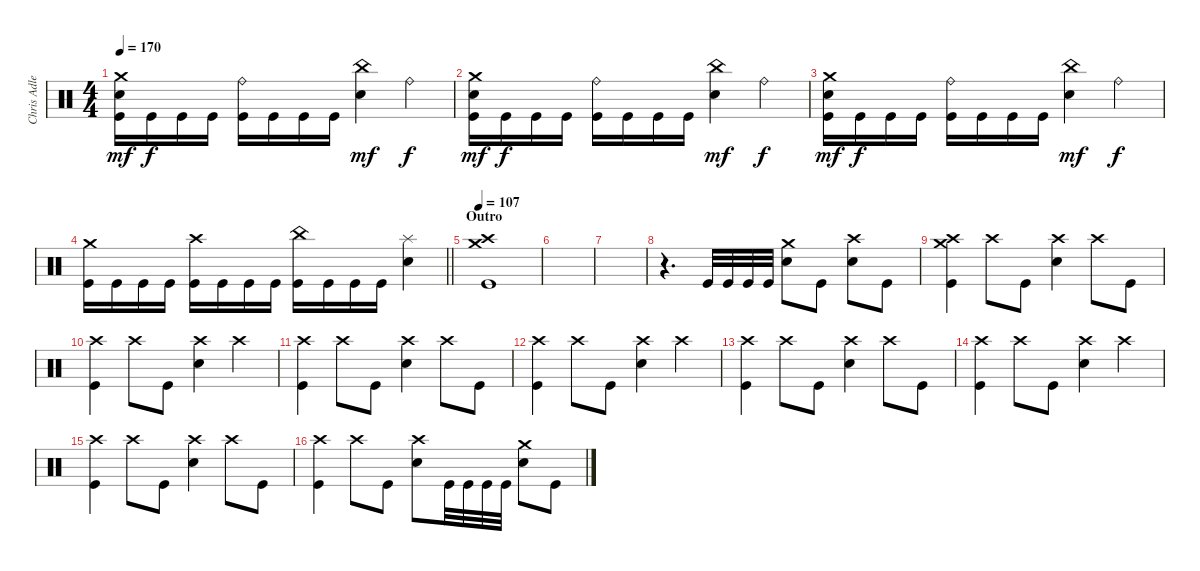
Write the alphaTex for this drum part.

\track ("Chris Adler" "Chris Adle") {instrument percussion}
\staff {score}
\articulation defaults
\ts (4 4)
\tempo 170
\clef neutral
\ks c
("Crash medium (hit)" "Snare (hit) 2" "Kick (hit)").16{dy mf} "Kick (hit)".16{dy f} "Kick (hit)".16 "Kick (hit)".16 ("Kick (hit)" "Ride (bell)").16 "Kick (hit)".16 "Kick (hit)".16 "Kick (hit)".16 ("China (hit)" "Snare (hit) 2").4{dy mf} "Ride (bell)".4{dy f} |
("Crash medium (hit)" "Snare (hit) 2" "Kick (hit)").16{dy mf} "Kick (hit)".16{dy f} "Kick (hit)".16 "Kick (hit)".16 ("Kick (hit)" "Ride (bell)").16 "Kick (hit)".16 "Kick (hit)".16 "Kick (hit)".16 ("China (hit)" "Snare (hit) 2").4{dy mf} "Ride (bell)".4{dy f} |
("Crash medium (hit)" "Snare (hit) 2" "Kick (hit)").16{dy mf} "Kick (hit)".16{dy f} "Kick (hit)".16 "Kick (hit)".16 ("Kick (hit)" "Ride (bell)").16 "Kick (hit)".16 "Kick (hit)".16 "Kick (hit)".16 ("China (hit)" "Snare (hit) 2").4{dy mf} "Ride (bell)".4{dy f} |
\barLineRight lightlight
("Kick (hit)" "Crash medium (hit)").16 "Kick (hit)".16 "Kick (hit)".16 "Kick (hit)".16 ("Kick (hit)" "Crash high (hit)").16 "Kick (hit)".16 "Kick (hit)".16 "Kick (hit)".16 ("Kick (hit)" "China (hit)").16 "Kick (hit)".16 "Kick (hit)".16 "Kick (hit)".16 ("Splash (hit)" "Snare (hit) 2").4 |
\section ("" "Outro")
\tempo 107
("Kick (hit)" "Crash medium (hit)" "Crash high (hit)").1 |
|
|
r.4{d} "Kick (hit)".32 "Kick (hit)".32 "Kick (hit)".32 "Kick (hit)".32 ("Crash medium (hit)" "Snare (hit) 2").8 "Kick (hit)".8 ("Crash high (hit)" "Snare (hit) 2").8 "Kick (hit)".8 |
("Kick (hit)" "Crash high (hit)" "Crash medium (hit)").4 "Crash high (hit)".8 "Kick (hit)".8 ("Crash high (hit)" "Snare (hit) 2").4 "Crash high (hit)".8 "Kick (hit)".8 |
("Kick (hit)" "Crash high (hit)").4 "Crash high (hit)".8 "Kick (hit)".8 ("Snare (hit) 2" "Crash high (hit)").4 "Crash high (hit)".4 |
("Kick (hit)" "Crash high (hit)").4 "Crash high (hit)".8 "Kick (hit)".8 ("Crash high (hit)" "Snare (hit) 2").4 "Crash high (hit)".8 "Kick (hit)".8 |
("Kick (hit)" "Crash high (hit)").4 "Crash high (hit)".8 "Kick (hit)".8 ("Snare (hit) 2" "Crash high (hit)").4 "Crash high (hit)".4 |
("Kick (hit)" "Crash high (hit)").4 "Crash high (hit)".8 "Kick (hit)".8 ("Crash high (hit)" "Snare (hit) 2").4 "Crash high (hit)".8 "Kick (hit)".8 |
("Kick (hit)" "Crash high (hit)").4 "Crash high (hit)".8 "Kick (hit)".8 ("Snare (hit) 2" "Crash high (hit)").4 "Crash high (hit)".4 |
("Kick (hit)" "Crash high (hit)").4 "Crash high (hit)".8 "Kick (hit)".8 ("Crash high (hit)" "Snare (hit) 2").4 "Crash high (hit)".8 "Kick (hit)".8 |
("Kick (hit)" "Crash high (hit)").4 "Crash high (hit)".8 "Kick (hit)".8 ("Snare (hit) 2" "Crash high (hit)").8 "Kick (hit)".32 "Kick (hit)".32 "Kick (hit)".32 "Kick (hit)".32 ("Crash medium (hit)" "Snare (hit) 2").8 "Kick (hit)".8
